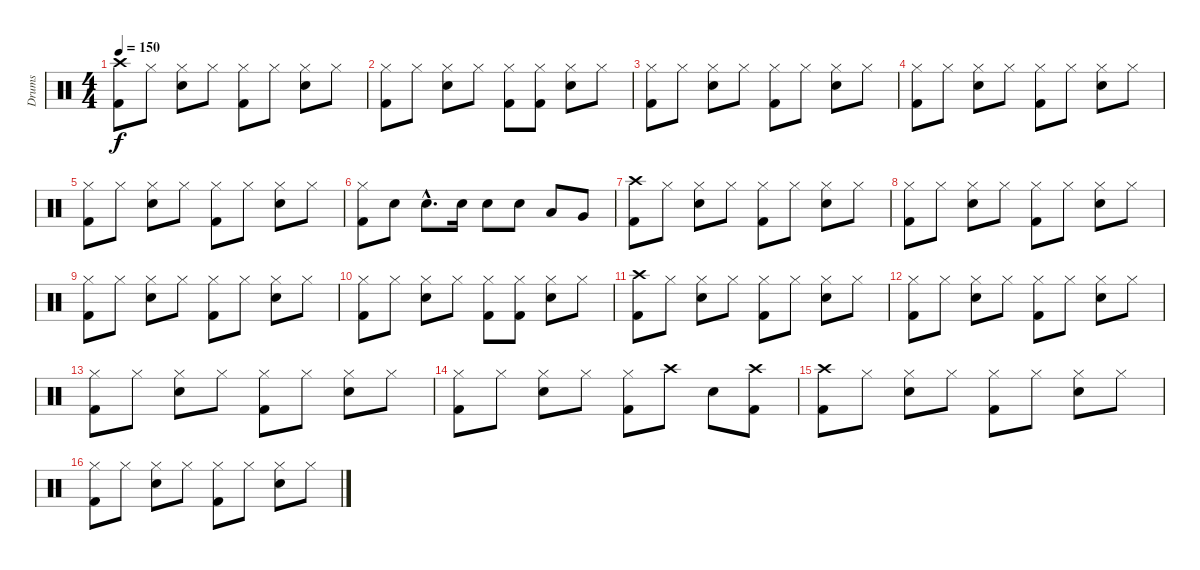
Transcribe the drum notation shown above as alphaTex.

\track ("Drums" "Drums") {instrument percussion}
\staff {score}
\articulation defaults
\ts (4 4)
\tempo 150
\clef neutral
\ks c
("Crash high (hit)" "Kick (hit) 2").8{dy f} "Hi-Hat (closed)".8 ("Hi-Hat (closed)" "Electric Snare (hit)").8 "Hi-Hat (closed)".8 ("Hi-Hat (closed)" "Kick (hit) 2").8 "Hi-Hat (closed)".8 ("Hi-Hat (closed)" "Electric Snare (hit)").8 "Hi-Hat (closed)".8 |
("Hi-Hat (closed)" "Kick (hit) 2").8 "Hi-Hat (closed)".8 ("Hi-Hat (closed)" "Electric Snare (hit)").8 "Hi-Hat (closed)".8 ("Hi-Hat (closed)" "Kick (hit) 2").8 ("Hi-Hat (closed)" "Kick (hit) 2").8 ("Hi-Hat (closed)" "Electric Snare (hit)").8 "Hi-Hat (closed)".8 |
("Hi-Hat (closed)" "Kick (hit) 2").8 "Hi-Hat (closed)".8 ("Hi-Hat (closed)" "Electric Snare (hit)").8 "Hi-Hat (closed)".8 ("Hi-Hat (closed)" "Kick (hit) 2").8 "Hi-Hat (closed)".8 ("Hi-Hat (closed)" "Electric Snare (hit)").8 "Hi-Hat (closed)".8 |
("Hi-Hat (closed)" "Kick (hit) 2").8 "Hi-Hat (closed)".8 ("Hi-Hat (closed)" "Electric Snare (hit)").8 "Hi-Hat (closed)".8 ("Hi-Hat (closed)" "Kick (hit) 2").8 "Hi-Hat (closed)".8 ("Hi-Hat (closed)" "Electric Snare (hit)").8 "Hi-Hat (closed)".8 |
("Hi-Hat (closed)" "Kick (hit) 2").8 "Hi-Hat (closed)".8 ("Hi-Hat (closed)" "Electric Snare (hit)").8 "Hi-Hat (closed)".8 ("Hi-Hat (closed)" "Kick (hit) 2").8 "Hi-Hat (closed)".8 ("Hi-Hat (closed)" "Electric Snare (hit)").8 "Hi-Hat (closed)".8 |
("Hi-Hat (closed)" "Kick (hit) 2").8 "Electric Snare (hit)".8 "Electric Snare (hit)"{hac}.8{d} "Electric Snare (hit)".16 "Electric Snare (hit)".8 "Electric Snare (hit)".8 "Low Tom (hit)".8 "Very Low Tom (hit)".8 |
("Crash high (hit)" "Kick (hit) 2").8 "Hi-Hat (closed)".8 ("Hi-Hat (closed)" "Electric Snare (hit)").8 "Hi-Hat (closed)".8 ("Hi-Hat (closed)" "Kick (hit) 2").8 "Hi-Hat (closed)".8 ("Hi-Hat (closed)" "Electric Snare (hit)").8 "Hi-Hat (closed)".8 |
("Hi-Hat (closed)" "Kick (hit) 2").8 "Hi-Hat (closed)".8 ("Hi-Hat (closed)" "Electric Snare (hit)").8 "Hi-Hat (closed)".8 ("Hi-Hat (closed)" "Kick (hit) 2").8 "Hi-Hat (closed)".8 ("Hi-Hat (closed)" "Electric Snare (hit)").8 "Hi-Hat (closed)".8 |
("Hi-Hat (closed)" "Kick (hit) 2").8 "Hi-Hat (closed)".8 ("Hi-Hat (closed)" "Electric Snare (hit)").8 "Hi-Hat (closed)".8 ("Hi-Hat (closed)" "Kick (hit) 2").8 "Hi-Hat (closed)".8 ("Hi-Hat (closed)" "Electric Snare (hit)").8 "Hi-Hat (closed)".8 |
("Hi-Hat (closed)" "Kick (hit) 2").8 "Hi-Hat (closed)".8 ("Hi-Hat (closed)" "Electric Snare (hit)").8 "Hi-Hat (closed)".8 ("Hi-Hat (closed)" "Kick (hit) 2").8 ("Hi-Hat (closed)" "Kick (hit) 2").8 ("Hi-Hat (closed)" "Electric Snare (hit)").8 "Hi-Hat (closed)".8 |
("Crash high (hit)" "Kick (hit) 2").8 "Hi-Hat (closed)".8 ("Hi-Hat (closed)" "Electric Snare (hit)").8 "Hi-Hat (closed)".8 ("Hi-Hat (closed)" "Kick (hit) 2").8 "Hi-Hat (closed)".8 ("Hi-Hat (closed)" "Electric Snare (hit)").8 "Hi-Hat (closed)".8 |
("Hi-Hat (closed)" "Kick (hit) 2").8 "Hi-Hat (closed)".8 ("Hi-Hat (closed)" "Electric Snare (hit)").8 "Hi-Hat (closed)".8 ("Hi-Hat (closed)" "Kick (hit) 2").8 "Hi-Hat (closed)".8 ("Hi-Hat (closed)" "Electric Snare (hit)").8 "Hi-Hat (closed)".8 |
("Hi-Hat (closed)" "Kick (hit) 2").8 "Hi-Hat (closed)".8 ("Hi-Hat (closed)" "Electric Snare (hit)").8 "Hi-Hat (closed)".8 ("Hi-Hat (closed)" "Kick (hit) 2").8 "Hi-Hat (closed)".8 ("Hi-Hat (closed)" "Electric Snare (hit)").8 "Hi-Hat (closed)".8 |
("Hi-Hat (closed)" "Kick (hit) 2").8 "Hi-Hat (closed)".8 ("Hi-Hat (closed)" "Electric Snare (hit)").8 "Hi-Hat (closed)".8 ("Hi-Hat (closed)" "Kick (hit) 2").8 "Crash high (hit)".8 "Electric Snare (hit)".8 ("Crash high (hit)" "Kick (hit) 2").8 |
("Crash high (hit)" "Kick (hit) 2").8 "Hi-Hat (closed)".8 ("Hi-Hat (closed)" "Electric Snare (hit)").8 "Hi-Hat (closed)".8 ("Hi-Hat (closed)" "Kick (hit) 2").8 "Hi-Hat (closed)".8 ("Hi-Hat (closed)" "Electric Snare (hit)").8 "Hi-Hat (closed)".8 |
("Hi-Hat (closed)" "Kick (hit) 2").8 "Hi-Hat (closed)".8 ("Hi-Hat (closed)" "Electric Snare (hit)").8 "Hi-Hat (closed)".8 ("Hi-Hat (closed)" "Kick (hit) 2").8 "Hi-Hat (closed)".8 ("Hi-Hat (closed)" "Electric Snare (hit)").8 "Hi-Hat (closed)".8
